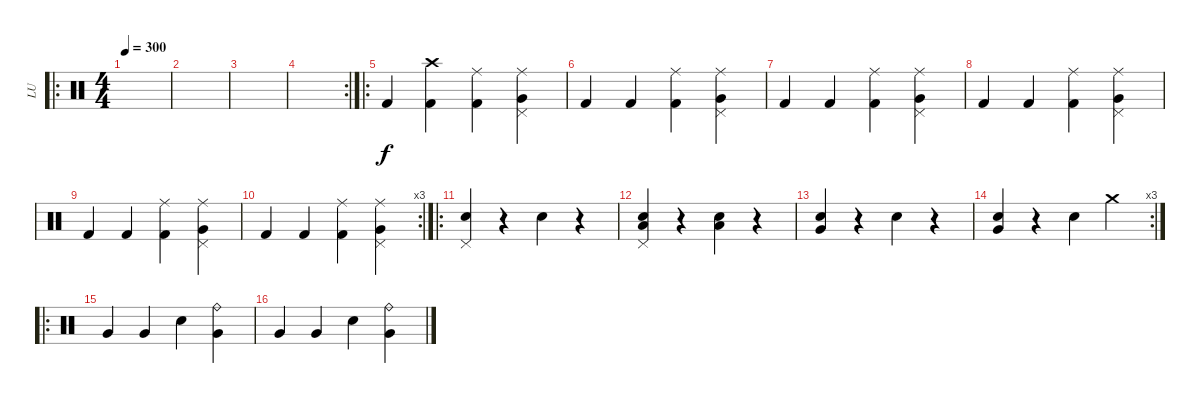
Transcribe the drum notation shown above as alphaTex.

\track ("LU" "LU") {instrument percussion}
\staff {score}
\articulation defaults
\ro
\ts (4 4)
\tempo 300
\clef neutral
\ks c
|
|
|
\rc 2
|
\ro "Kick (hit) 2".4
("Kick (hit) 2" "Crash high (hit)").4 ("Ride (middle)" "Kick (hit) 2").4 ("Ride (middle)" "Pedal Hi-Hat (hit)" "Very Low Tom (hit)").4 |
"Kick (hit) 2".4 "Kick (hit) 2".4 ("Ride (middle)" "Kick (hit) 2").4 ("Ride (middle)" "Pedal Hi-Hat (hit)" "Very Low Tom (hit)").4 |
"Kick (hit) 2".4 "Kick (hit) 2".4 ("Ride (middle)" "Kick (hit) 2").4 ("Ride (middle)" "Pedal Hi-Hat (hit)" "Very Low Tom (hit)").4 |
"Kick (hit) 2".4 "Kick (hit) 2".4 ("Ride (middle)" "Kick (hit) 2").4 ("Ride (middle)" "Pedal Hi-Hat (hit)" "Very Low Tom (hit)").4 |
"Kick (hit) 2".4 "Kick (hit) 2".4 ("Ride (middle)" "Kick (hit) 2").4 ("Ride (middle)" "Pedal Hi-Hat (hit)" "Very Low Tom (hit)").4 |
\rc 3 "Kick (hit) 2".4 "Kick (hit) 2".4
("Ride (middle)" "Kick (hit) 2").4 ("Ride (middle)" "Pedal Hi-Hat (hit)" "Very Low Tom (hit)").4 |
\ro
("Pedal Hi-Hat (hit)" "Snare (hit) 2").4 r.4 "Snare (hit) 2".4 r.4 |
("Low Floor Tom (hit)" "Pedal Hi-Hat (hit)" "Snare (hit) 2").4 r.4 ("Low Floor Tom (hit)" "Snare (hit) 2").4 r.4 |
("Very Low Tom (hit)" "Snare (hit) 2").4 r.4 "Snare (hit) 2".4 r.4 |
\rc 3
("Very Low Tom (hit)" "Snare (hit) 2").4 r.4 "Snare (hit) 2".4 "Crash medium (hit)".4 |
\ro "Very Low Tom (hit)".4 "Very Low Tom (hit)".4 "Snare (hit) 2".4
("Ride (bell)" "Very Low Tom (hit)").4 |
"Very Low Tom (hit)".4 "Very Low Tom (hit)".4 "Snare (hit) 2".4 ("Ride (bell)" "Very Low Tom (hit)").4
